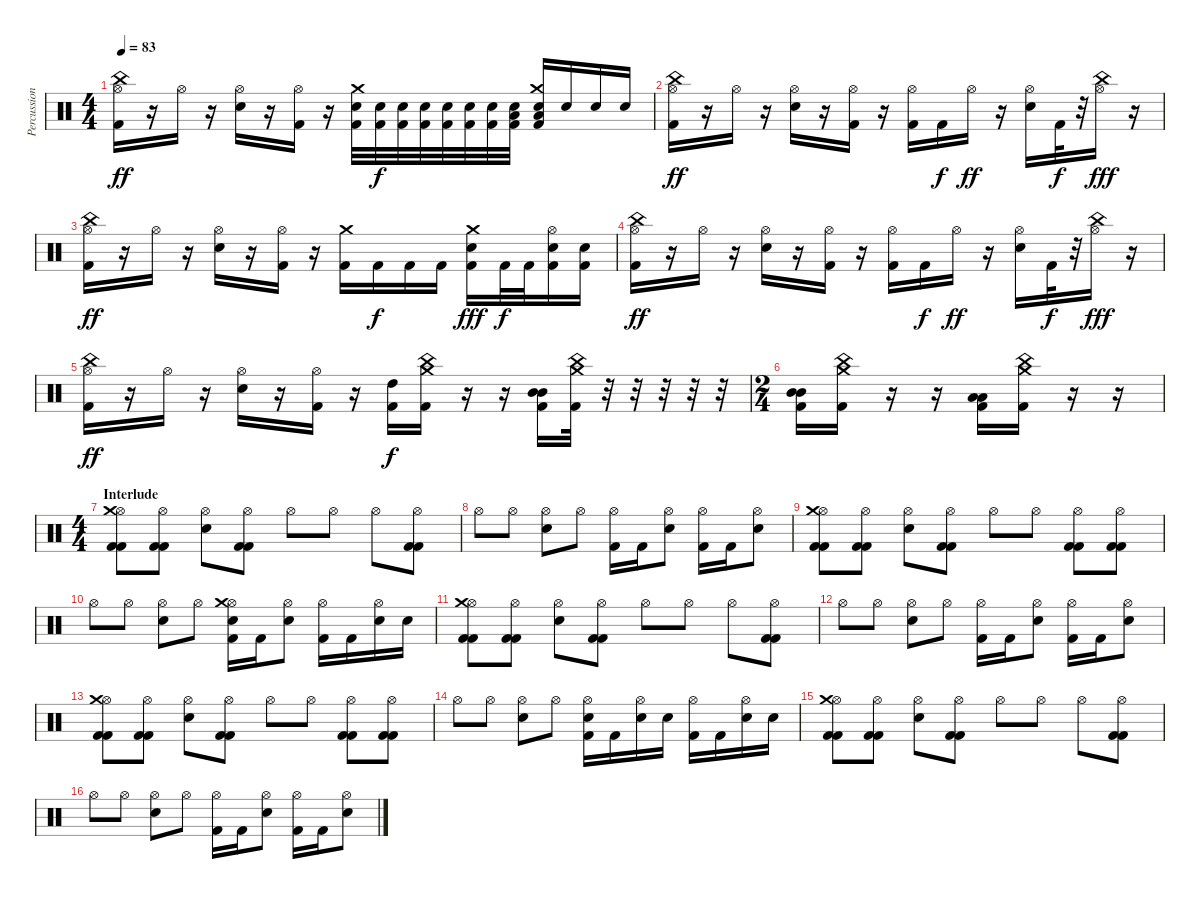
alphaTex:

\track ("Percussion" "Percussion") {instrument percussion}
\staff {score}
\articulation defaults
\ts (4 4)
\tempo 83
\clef neutral
\ks c
("Hi-Hat (open)" "China (hit)" "Kick (hit) 2").16{dy ff} r.16 "Hi-Hat (open)".16 r.16 ("Hi-Hat (open)" "Snare (hit) 2").16 r.16 ("Hi-Hat (open)" "Kick (hit) 2").16 r.16 ("Crash medium (hit)" "Snare (hit) 2" "Kick (hit) 2").32 ("Snare (hit) 2" "Kick (hit) 2").32{dy f} ("Snare (hit) 2" "Kick (hit) 2").32 ("Snare (hit) 2" "Kick (hit) 2").32 ("Snare (hit) 2" "Kick (hit) 2").32 ("Snare (hit) 2" "Kick (hit) 2").32 ("Snare (hit) 2" "Kick (hit) 2").32 ("Snare (hit) 2" "Low Tom (hit)" "Kick (hit) 2").32 ("Crash medium (hit)" "Low Tom (hit)" "Snare (hit) 2" "Kick (hit) 2").16 "Snare (hit) 2".16 "Snare (hit) 2".16 "Snare (hit) 2".16 |
("Hi-Hat (open)" "China (hit)" "Kick (hit) 2").16{dy ff} r.16 "Hi-Hat (open)".16 r.16 ("Hi-Hat (open)" "Snare (hit) 2").16 r.16 ("Hi-Hat (open)" "Kick (hit) 2").16 r.16 ("Hi-Hat (open)" "Kick (hit) 2").16 "Kick (hit) 2".16{dy f} "Hi-Hat (open)".16{dy ff} r.16 ("Hi-Hat (open)" "Snare (hit) 2").16 "Kick (hit) 2".32{dy f} r.32 ("China (hit)" "Hi-Hat (open)").16{dy fff} r.16 |
("Hi-Hat (open)" "China (hit)" "Kick (hit) 2").16{dy ff} r.16 "Hi-Hat (open)".16 r.16 ("Hi-Hat (open)" "Snare (hit) 2").16 r.16 ("Hi-Hat (open)" "Kick (hit) 2").16 r.16 ("Crash medium (hit)" "Kick (hit) 2").16 "Kick (hit) 2".16{dy f} "Kick (hit) 2".16 "Kick (hit) 2".16 ("Crash medium (hit)" "Snare (hit) 2" "Kick (hit) 2").16{dy fff} "Kick (hit) 2".32{dy f} "Kick (hit) 2".32 ("Hi-Hat (open)" "Snare (hit) 2" "Kick (hit) 2").16 ("Snare (hit) 2" "Kick (hit) 2").16 |
("Hi-Hat (open)" "China (hit)" "Kick (hit) 2").16{dy ff} r.16 "Hi-Hat (open)".16 r.16 ("Hi-Hat (open)" "Snare (hit) 2").16 r.16 ("Hi-Hat (open)" "Kick (hit) 2").16 r.16 ("Hi-Hat (open)" "Kick (hit) 2").16 "Kick (hit) 2".16{dy f} "Hi-Hat (open)".16{dy ff} r.16 ("Hi-Hat (open)" "Snare (hit) 2").16 "Kick (hit) 2".32{dy f} r.32 ("China (hit)" "Hi-Hat (open)").16{dy fff} r.16 |
("Hi-Hat (open)" "China (hit)" "Kick (hit) 2").16{dy ff} r.16 "Hi-Hat (open)".16 r.16 ("Hi-Hat (open)" "Snare (hit) 2").16 r.16 ("Hi-Hat (open)" "Kick (hit) 2").16 r.16 ("High Tom (hit)" "Kick (hit) 2").16{dy f} ("Crash medium (hit)" "China (hit)" "Kick (hit) 2").16 r.16 r.16 ("Mid Tom (hit)" "Mid Tom (hit)" "Kick (hit) 2").16 ("Crash medium (hit)" "China (hit)" "Kick (hit) 2").32 r.32 r.32 r.32 r.32 r.32 |
\ts (2 4)
("Mid Tom (hit)" "Mid Tom (hit)" "Kick (hit) 2").16 ("Crash medium (hit)" "China (hit)" "Kick (hit) 2").16 r.16 r.16 ("Low Tom (hit)" "Low Tom (hit)" "Kick (hit) 2").16 ("China (hit)" "Crash medium (hit)" "Kick (hit) 2").16 r.16 r.16 |
\ts (4 4)
\section ("" "Interlude")
("Hi-Hat (open)" "Crash medium (hit)" "Kick (hit) 2" "Kick (hit) 2").8 ("Hi-Hat (open)" "Kick (hit) 2" "Kick (hit) 2").8 ("Hi-Hat (open)" "Snare (hit) 2").8 ("Hi-Hat (open)" "Kick (hit) 2" "Kick (hit) 2").8 "Hi-Hat (open)".8 "Hi-Hat (open)".8 "Hi-Hat (open)".8 ("Hi-Hat (open)" "Kick (hit) 2" "Kick (hit) 2").8 |
"Hi-Hat (open)".8 "Hi-Hat (open)".8 ("Hi-Hat (open)" "Snare (hit) 2").8 "Hi-Hat (open)".8 ("Hi-Hat (open)" "Kick (hit) 2").16 "Kick (hit) 2".16 ("Hi-Hat (open)" "Snare (hit) 2").8 ("Hi-Hat (open)" "Kick (hit) 2").16 "Kick (hit) 2".16 ("Hi-Hat (open)" "Snare (hit) 2").8 |
("Hi-Hat (open)" "Crash medium (hit)" "Kick (hit) 2" "Kick (hit) 2").8 ("Hi-Hat (open)" "Kick (hit) 2" "Kick (hit) 2").8 ("Hi-Hat (open)" "Snare (hit) 2").8 ("Hi-Hat (open)" "Kick (hit) 2" "Kick (hit) 2").8 "Hi-Hat (open)".8 "Hi-Hat (open)".8 ("Hi-Hat (open)" "Kick (hit) 2" "Kick (hit) 2").8 ("Hi-Hat (open)" "Kick (hit) 2" "Kick (hit) 2").8 |
"Hi-Hat (open)".8 "Hi-Hat (open)".8 ("Hi-Hat (open)" "Snare (hit) 2").8 "Hi-Hat (open)".8 ("Hi-Hat (open)" "Crash medium (hit)" "Snare (hit) 2" "Kick (hit) 2").16 "Kick (hit) 2".16 ("Hi-Hat (open)" "Snare (hit) 2").8 ("Hi-Hat (open)" "Kick (hit) 2").16 "Kick (hit) 2".16 ("Hi-Hat (open)" "Snare (hit) 2").16 "Snare (hit) 2".16 |
("Hi-Hat (open)" "Crash medium (hit)" "Kick (hit) 2" "Kick (hit) 2").8 ("Hi-Hat (open)" "Kick (hit) 2" "Kick (hit) 2").8 ("Hi-Hat (open)" "Snare (hit) 2").8 ("Hi-Hat (open)" "Kick (hit) 2" "Kick (hit) 2").8 "Hi-Hat (open)".8 "Hi-Hat (open)".8 "Hi-Hat (open)".8 ("Hi-Hat (open)" "Kick (hit) 2" "Kick (hit) 2").8 |
"Hi-Hat (open)".8 "Hi-Hat (open)".8 ("Hi-Hat (open)" "Snare (hit) 2").8 "Hi-Hat (open)".8 ("Hi-Hat (open)" "Kick (hit) 2").16 "Kick (hit) 2".16 ("Hi-Hat (open)" "Snare (hit) 2").8 ("Hi-Hat (open)" "Kick (hit) 2").16 "Kick (hit) 2".16 ("Hi-Hat (open)" "Snare (hit) 2").8 |
("Hi-Hat (open)" "Crash medium (hit)" "Kick (hit) 2" "Kick (hit) 2").8 ("Hi-Hat (open)" "Kick (hit) 2" "Kick (hit) 2").8 ("Hi-Hat (open)" "Snare (hit) 2").8 ("Hi-Hat (open)" "Kick (hit) 2" "Kick (hit) 2").8 "Hi-Hat (open)".8 "Hi-Hat (open)".8 ("Hi-Hat (open)" "Kick (hit) 2" "Kick (hit) 2").8 ("Hi-Hat (open)" "Kick (hit) 2" "Kick (hit) 2").8 |
"Hi-Hat (open)".8 "Hi-Hat (open)".8 ("Hi-Hat (open)" "Snare (hit) 2").8 "Hi-Hat (open)".8 ("Hi-Hat (open)" "Snare (hit) 2" "Kick (hit) 2").16 "Kick (hit) 2".16 ("Hi-Hat (open)" "Snare (hit) 2").16 "Snare (hit) 2".16 ("Hi-Hat (open)" "Kick (hit) 2").16 "Kick (hit) 2".16 ("Hi-Hat (open)" "Snare (hit) 2").16 "Snare (hit) 2".16 |
("Hi-Hat (open)" "Crash medium (hit)" "Kick (hit) 2" "Kick (hit) 2").8 ("Hi-Hat (open)" "Kick (hit) 2" "Kick (hit) 2").8 ("Hi-Hat (open)" "Snare (hit) 2").8 ("Hi-Hat (open)" "Kick (hit) 2" "Kick (hit) 2").8 "Hi-Hat (open)".8 "Hi-Hat (open)".8 "Hi-Hat (open)".8 ("Hi-Hat (open)" "Kick (hit) 2" "Kick (hit) 2").8 |
"Hi-Hat (open)".8 "Hi-Hat (open)".8 ("Hi-Hat (open)" "Snare (hit) 2").8 "Hi-Hat (open)".8 ("Hi-Hat (open)" "Kick (hit) 2").16 "Kick (hit) 2".16 ("Hi-Hat (open)" "Snare (hit) 2").8 ("Hi-Hat (open)" "Kick (hit) 2").16 "Kick (hit) 2".16 ("Hi-Hat (open)" "Snare (hit) 2").8
